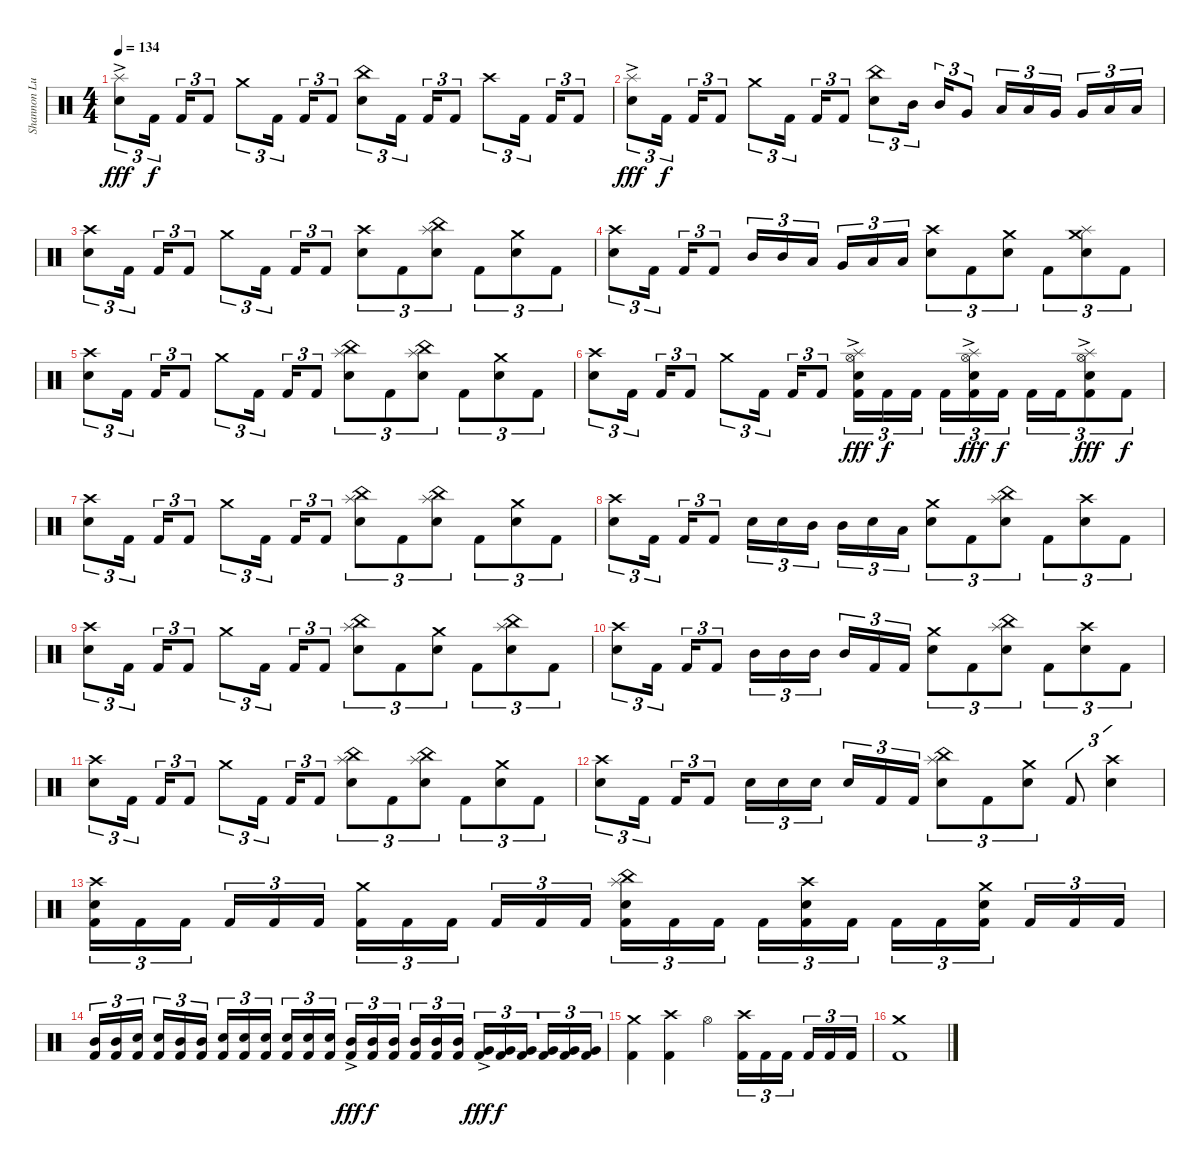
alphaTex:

\track ("Shannon Lucas [Drums (Since 2007)]" "Shannon Lu") {instrument percussion}
\staff {score}
\articulation defaults
\ts (4 4)
\tempo 134
\clef neutral
\ks c
("Splash (hit)"{ac} "Snare (hit) 2"{ac}).8{tu (3 2) dy fff} "Kick (hit) 2".16{tu (3 2) dy f} "Kick (hit) 2".16{tu (3 2)} "Kick (hit) 2".8{tu (3 2)} "Crash medium (hit)".8{tu (3 2)} "Kick (hit) 2".16{tu (3 2)} "Kick (hit) 2".16{tu (3 2)} "Kick (hit) 2".8{tu (3 2)} ("China (hit)" "Snare (hit) 2").8{tu (3 2)} "Kick (hit) 2".16{tu (3 2)} "Kick (hit) 2".16{tu (3 2)} "Kick (hit) 2".8{tu (3 2)} "Crash high (hit)".8{tu (3 2)} "Kick (hit) 2".16{tu (3 2)} "Kick (hit) 2".16{tu (3 2)} "Kick (hit) 2".8{tu (3 2)} |
("Splash (hit)"{ac} "Snare (hit) 2"{ac}).8{tu (3 2) dy fff} "Kick (hit) 2".16{tu (3 2) dy f} "Kick (hit) 2".16{tu (3 2)} "Kick (hit) 2".8{tu (3 2)} "Crash medium (hit)".8{tu (3 2)} "Kick (hit) 2".16{tu (3 2)} "Kick (hit) 2".16{tu (3 2)} "Kick (hit) 2".8{tu (3 2)} ("China (hit)" "Snare (hit) 2").8{tu (3 2)} "Mid Tom (hit)".16{tu (3 2)} "Mid Tom (hit)".16{tu (3 2)} "Very Low Tom (hit)".8{tu (3 2)} "Low Tom (hit)".16{tu (3 2)} "Low Tom (hit)".16{tu (3 2)} "Very Low Tom (hit)".16{tu (3 2)} "Very Low Tom (hit)".16{tu (3 2)} "Low Floor Tom (hit)".16{tu (3 2)} "Low Floor Tom (hit)".16{tu (3 2)} |
("Crash high (hit)" "Snare (hit) 2").8{tu (3 2)} "Kick (hit) 2".16{tu (3 2)} "Kick (hit) 2".16{tu (3 2)} "Kick (hit) 2".8{tu (3 2)} "Crash medium (hit)".8{tu (3 2)} "Kick (hit) 2".16{tu (3 2)} "Kick (hit) 2".16{tu (3 2)} "Kick (hit) 2".8{tu (3 2)} ("Crash high (hit)" "Snare (hit) 2").8{tu (3 2)} "Kick (hit) 2".8{tu (3 2)} ("China (hit)" "Splash (hit)" "Snare (hit) 2").8{tu (3 2)} "Kick (hit) 2".8{tu (3 2)} ("Crash medium (hit)" "Snare (hit) 2").8{tu (3 2)} "Kick (hit) 2".8{tu (3 2)} |
("Crash high (hit)" "Snare (hit) 2").8{tu (3 2)} "Kick (hit) 2".16{tu (3 2)} "Kick (hit) 2".16{tu (3 2)} "Kick (hit) 2".8{tu (3 2)} "Mid Tom (hit)".16{tu (3 2)} "Mid Tom (hit)".16{tu (3 2)} "Low Tom (hit)".16{tu (3 2)} "Very Low Tom (hit)".16{tu (3 2)} "Low Floor Tom (hit)".16{tu (3 2)} "Low Floor Tom (hit)".16{tu (3 2)} ("Crash high (hit)" "Snare (hit) 2").8{tu (3 2)} "Kick (hit) 2".8{tu (3 2)} ("Crash medium (hit)" "Snare (hit) 2").8{tu (3 2)} "Kick (hit) 2".8{tu (3 2)} ("Crash medium (hit)" "Splash (hit)" "Snare (hit) 2").8{tu (3 2)} "Kick (hit) 2".8{tu (3 2)} |
("Crash high (hit)" "Snare (hit) 2").8{tu (3 2)} "Kick (hit) 2".16{tu (3 2)} "Kick (hit) 2".16{tu (3 2)} "Kick (hit) 2".8{tu (3 2)} "Crash medium (hit)".8{tu (3 2)} "Kick (hit) 2".16{tu (3 2)} "Kick (hit) 2".16{tu (3 2)} "Kick (hit) 2".8{tu (3 2)} ("Splash (hit)" "China (hit)" "Snare (hit) 2").8{tu (3 2)} "Kick (hit) 2".8{tu (3 2)} ("Splash (hit)" "China (hit)" "Snare (hit) 2").8{tu (3 2)} "Kick (hit) 2".8{tu (3 2)} ("Crash medium (hit)" "Snare (hit) 2").8{tu (3 2)} "Kick (hit) 2".8{tu (3 2)} |
("Crash high (hit)" "Snare (hit) 2").8{tu (3 2)} "Kick (hit) 2".16{tu (3 2)} "Kick (hit) 2".16{tu (3 2)} "Kick (hit) 2".8{tu (3 2)} "Crash medium (hit)".8{tu (3 2)} "Kick (hit) 2".16{tu (3 2)} "Kick (hit) 2".16{tu (3 2)} "Kick (hit) 2".8{tu (3 2)} ("Splash (hit)" "Hi-Hat (open)"{ac} "Snare (hit) 2" "Kick (hit) 2").16{tu (3 2) dy fff} "Kick (hit) 2".16{tu (3 2) dy f} "Kick (hit) 2".16{tu (3 2)} "Kick (hit) 2".16{tu (3 2)} ("Splash (hit)" "Hi-Hat (open)"{ac} "Snare (hit) 2" "Kick (hit) 2").16{tu (3 2) dy fff} "Kick (hit) 2".16{tu (3 2) dy f} "Kick (hit) 2".16{tu (3 2)} "Kick (hit) 2".16{tu (3 2)} ("Splash (hit)" "Hi-Hat (open)"{ac} "Snare (hit) 2" "Kick (hit) 2").8{tu (3 2) dy fff} "Kick (hit) 2".8{tu (3 2) dy f} |
("Crash high (hit)" "Snare (hit) 2").8{tu (3 2)} "Kick (hit) 2".16{tu (3 2)} "Kick (hit) 2".16{tu (3 2)} "Kick (hit) 2".8{tu (3 2)} "Crash medium (hit)".8{tu (3 2)} "Kick (hit) 2".16{tu (3 2)} "Kick (hit) 2".16{tu (3 2)} "Kick (hit) 2".8{tu (3 2)} ("Splash (hit)" "China (hit)" "Snare (hit) 2").8{tu (3 2)} "Kick (hit) 2".8{tu (3 2)} ("Splash (hit)" "China (hit)" "Snare (hit) 2").8{tu (3 2)} "Kick (hit) 2".8{tu (3 2)} ("Crash medium (hit)" "Snare (hit) 2").8{tu (3 2)} "Kick (hit) 2".8{tu (3 2)} |
("Crash high (hit)" "Snare (hit) 2").8{tu (3 2)} "Kick (hit) 2".16{tu (3 2)} "Kick (hit) 2".16{tu (3 2)} "Kick (hit) 2".8{tu (3 2)} "Snare (hit) 2".16{tu (3 2)} "Snare (hit) 2".16{tu (3 2)} "Mid Tom (hit)".16{tu (3 2)} "Mid Tom (hit)".16{tu (3 2)} "Snare (hit) 2".16{tu (3 2)} "Low Tom (hit)".16{tu (3 2)} ("Crash medium (hit)" "Snare (hit) 2").8{tu (3 2)} "Kick (hit) 2".8{tu (3 2)} ("Splash (hit)" "China (hit)" "Snare (hit) 2").8{tu (3 2)} "Kick (hit) 2".8{tu (3 2)} ("Crash high (hit)" "Snare (hit) 2").8{tu (3 2)} "Kick (hit) 2".8{tu (3 2)} |
("Crash high (hit)" "Snare (hit) 2").8{tu (3 2)} "Kick (hit) 2".16{tu (3 2)} "Kick (hit) 2".16{tu (3 2)} "Kick (hit) 2".8{tu (3 2)} "Crash medium (hit)".8{tu (3 2)} "Kick (hit) 2".16{tu (3 2)} "Kick (hit) 2".16{tu (3 2)} "Kick (hit) 2".8{tu (3 2)} ("Splash (hit)" "China (hit)" "Snare (hit) 2").8{tu (3 2)} "Kick (hit) 2".8{tu (3 2)} ("Crash medium (hit)" "Snare (hit) 2").8{tu (3 2)} "Kick (hit) 2".8{tu (3 2)} ("China (hit)" "Splash (hit)" "Snare (hit) 2").8{tu (3 2)} "Kick (hit) 2".8{tu (3 2)} |
("Crash high (hit)" "Snare (hit) 2").8{tu (3 2)} "Kick (hit) 2".16{tu (3 2)} "Kick (hit) 2".16{tu (3 2)} "Kick (hit) 2".8{tu (3 2)} "Mid Tom (hit)".16{tu (3 2)} "Mid Tom (hit)".16{tu (3 2)} "Mid Tom (hit)".16{tu (3 2)} "Mid Tom (hit)".16{tu (3 2)} "Kick (hit) 2".16{tu (3 2)} "Kick (hit) 2".16{tu (3 2)} ("Crash medium (hit)" "Snare (hit) 2").8{tu (3 2)} "Kick (hit) 2".8{tu (3 2)} ("Splash (hit)" "China (hit)" "Snare (hit) 2").8{tu (3 2)} "Kick (hit) 2".8{tu (3 2)} ("Crash high (hit)" "Snare (hit) 2").8{tu (3 2)} "Kick (hit) 2".8{tu (3 2)} |
("Crash high (hit)" "Snare (hit) 2").8{tu (3 2)} "Kick (hit) 2".16{tu (3 2)} "Kick (hit) 2".16{tu (3 2)} "Kick (hit) 2".8{tu (3 2)} "Crash medium (hit)".8{tu (3 2)} "Kick (hit) 2".16{tu (3 2)} "Kick (hit) 2".16{tu (3 2)} "Kick (hit) 2".8{tu (3 2)} ("Splash (hit)" "China (hit)" "Snare (hit) 2").8{tu (3 2)} "Kick (hit) 2".8{tu (3 2)} ("Splash (hit)" "China (hit)" "Snare (hit) 2").8{tu (3 2)} "Kick (hit) 2".8{tu (3 2)} ("Crash medium (hit)" "Snare (hit) 2").8{tu (3 2)} "Kick (hit) 2".8{tu (3 2)} |
("Crash high (hit)" "Snare (hit) 2").8{tu (3 2)} "Kick (hit) 2".16{tu (3 2)} "Kick (hit) 2".16{tu (3 2)} "Kick (hit) 2".8{tu (3 2)} "Snare (hit) 2".16{tu (3 2)} "Snare (hit) 2".16{tu (3 2)} "Snare (hit) 2".16{tu (3 2)} "Snare (hit) 2".16{tu (3 2)} "Kick (hit) 2".16{tu (3 2)} "Kick (hit) 2".16{tu (3 2)} ("China (hit)" "Splash (hit)" "Snare (hit) 2").8{tu (3 2)} "Kick (hit) 2".8{tu (3 2)} ("Crash medium (hit)" "Snare (hit) 2").8{tu (3 2)} "Kick (hit) 2".8{tu (3 2)} ("Crash high (hit)" "Snare (hit) 2").4{tu (3 2)} |
("Crash high (hit)" "Snare (hit) 2" "Kick (hit) 2").16{tu (3 2)} "Kick (hit) 2".16{tu (3 2)} "Kick (hit) 2".16{tu (3 2)} "Kick (hit) 2".16{tu (3 2)} "Kick (hit) 2".16{tu (3 2)} "Kick (hit) 2".16{tu (3 2)} ("Crash medium (hit)" "Kick (hit) 2").16{tu (3 2)} "Kick (hit) 2".16{tu (3 2)} "Kick (hit) 2".16{tu (3 2)} "Kick (hit) 2".16{tu (3 2)} "Kick (hit) 2".16{tu (3 2)} "Kick (hit) 2".16{tu (3 2)} ("Splash (hit)" "China (hit)" "Snare (hit) 2" "Kick (hit) 2").16{tu (3 2)} "Kick (hit) 2".16{tu (3 2)} "Kick (hit) 2".16{tu (3 2)} "Kick (hit) 2".16{tu (3 2)} ("Crash high (hit)" "Snare (hit) 2" "Kick (hit) 2").16{tu (3 2)} "Kick (hit) 2".16{tu (3 2)} "Kick (hit) 2".16{tu (3 2)} "Kick (hit) 2".16{tu (3 2)} ("Crash medium (hit)" "Snare (hit) 2" "Kick (hit) 2").16{tu (3 2)} "Kick (hit) 2".16{tu (3 2)} "Kick (hit) 2".16{tu (3 2)} "Kick (hit) 2".16{tu (3 2)} |
("Mid Tom (hit)" "Kick (hit) 2").16{tu (3 2)} ("Mid Tom (hit)" "Kick (hit) 2").16{tu (3 2)} ("Snare (hit) 2" "Kick (hit) 2").16{tu (3 2)} ("Snare (hit) 2" "Kick (hit) 2").16{tu (3 2)} ("Mid Tom (hit)" "Kick (hit) 2").16{tu (3 2)} ("Mid Tom (hit)" "Kick (hit) 2").16{tu (3 2)} ("Snare (hit) 2" "Kick (hit) 2").16{tu (3 2)} ("Snare (hit) 2" "Kick (hit) 2").16{tu (3 2)} ("Snare (hit) 2" "Kick (hit) 2").16{tu (3 2)} ("Snare (hit) 2" "Kick (hit) 2").16{tu (3 2)} ("Snare (hit) 2" "Kick (hit) 2").16{tu (3 2)} ("Snare (hit) 2" "Kick (hit) 2").16{tu (3 2)} ("Mid Tom (hit)"{ac} "Kick (hit) 2").16{tu (3 2) dy fff} ("Mid Tom (hit)" "Kick (hit) 2").16{tu (3 2) dy f} ("Mid Tom (hit)" "Kick (hit) 2").16{tu (3 2)} ("Mid Tom (hit)" "Kick (hit) 2").16{tu (3 2)} ("Mid Tom (hit)" "Kick (hit) 2").16{tu (3 2)} ("Mid Tom (hit)" "Kick (hit) 2").16{tu (3 2)} ("Very Low Tom (hit)"{ac} "Kick (hit) 2").16{tu (3 2) dy fff} ("Very Low Tom (hit)" "Kick (hit) 2").16{tu (3 2) dy f} ("Very Low Tom (hit)" "Kick (hit) 2").16{tu (3 2)} ("Very Low Tom (hit)" "Kick (hit) 2").16{tu (3 2)} ("Very Low Tom (hit)" "Kick (hit) 2").16{tu (3 2)} ("Very Low Tom (hit)" "Kick (hit) 2").16{tu (3 2)} |
("Crash medium (hit)" "Kick (hit) 2").4 ("Crash high (hit)" "Kick (hit) 2").4 "Hi-Hat (open)".4 ("Crash high (hit)" "Kick (hit) 2").16{tu (3 2)} "Kick (hit) 2".16{tu (3 2)} "Kick (hit) 2".16{tu (3 2)} "Kick (hit) 2".16{tu (3 2)} "Kick (hit) 2".16{tu (3 2)} "Kick (hit) 2".16{tu (3 2)} |
("Crash medium (hit)" "Kick (hit) 2").1
